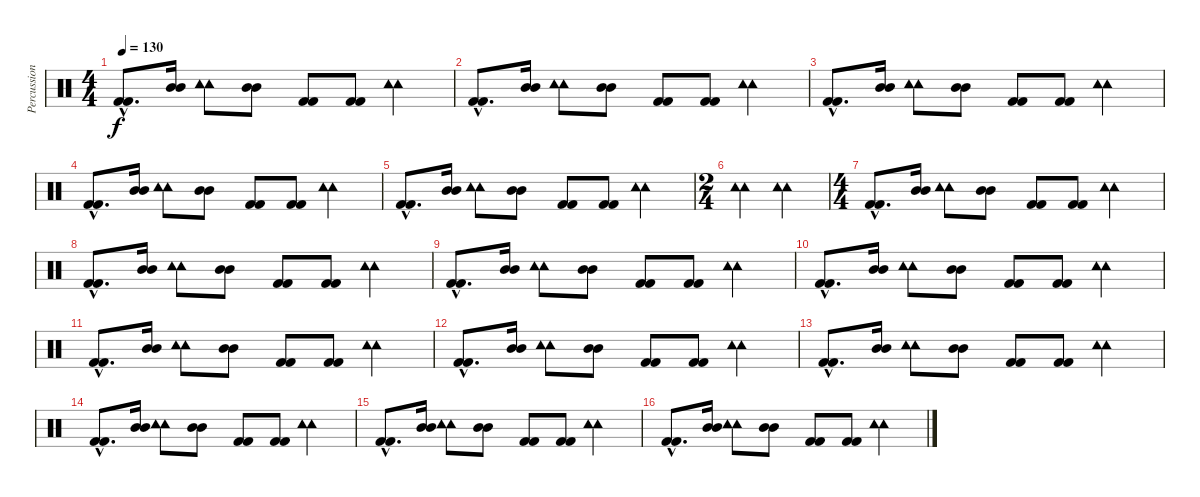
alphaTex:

\track ("Percussion" "Percussion") {instrument percussion}
\staff {score}
\articulation defaults
\ts (4 4)
\tempo 130
\clef neutral
\ks c
("Kick (hit) 2"{hac} "Kick (hit) 2"{hac}).8{d dy f} ("Mid Tom (hit)" "Mid Tom (hit)").16 ("Tambourine (hit)" "Tambourine (hit)").8 ("Mid Tom (hit)" "Mid Tom (hit)").8 ("Kick (hit) 2" "Kick (hit) 2").8 ("Kick (hit) 2" "Kick (hit) 2").8 ("Tambourine (hit)" "Tambourine (hit)").4 |
("Kick (hit) 2"{hac} "Kick (hit) 2"{hac}).8{d} ("Mid Tom (hit)" "Mid Tom (hit)").16 ("Tambourine (hit)" "Tambourine (hit)").8 ("Mid Tom (hit)" "Mid Tom (hit)").8 ("Kick (hit) 2" "Kick (hit) 2").8 ("Kick (hit) 2" "Kick (hit) 2").8 ("Tambourine (hit)" "Tambourine (hit)").4 |
("Kick (hit) 2"{hac} "Kick (hit) 2"{hac}).8{d} ("Mid Tom (hit)" "Mid Tom (hit)").16 ("Tambourine (hit)" "Tambourine (hit)").8 ("Mid Tom (hit)" "Mid Tom (hit)").8 ("Kick (hit) 2" "Kick (hit) 2").8 ("Kick (hit) 2" "Kick (hit) 2").8 ("Tambourine (hit)" "Tambourine (hit)").4 |
("Kick (hit) 2"{hac} "Kick (hit) 2"{hac}).8{d} ("Mid Tom (hit)" "Mid Tom (hit)").16 ("Tambourine (hit)" "Tambourine (hit)").8 ("Mid Tom (hit)" "Mid Tom (hit)").8 ("Kick (hit) 2" "Kick (hit) 2").8 ("Kick (hit) 2" "Kick (hit) 2").8 ("Tambourine (hit)" "Tambourine (hit)").4 |
("Kick (hit) 2"{hac} "Kick (hit) 2"{hac}).8{d} ("Mid Tom (hit)" "Mid Tom (hit)").16 ("Tambourine (hit)" "Tambourine (hit)").8 ("Mid Tom (hit)" "Mid Tom (hit)").8 ("Kick (hit) 2" "Kick (hit) 2").8 ("Kick (hit) 2" "Kick (hit) 2").8 ("Tambourine (hit)" "Tambourine (hit)").4 |
\ts (2 4)
("Tambourine (hit)" "Tambourine (hit)").4 ("Tambourine (hit)" "Tambourine (hit)").4 |
\ts (4 4)
("Kick (hit) 2"{hac} "Kick (hit) 2"{hac}).8{d} ("Mid Tom (hit)" "Mid Tom (hit)").16 ("Tambourine (hit)" "Tambourine (hit)").8 ("Mid Tom (hit)" "Mid Tom (hit)").8 ("Kick (hit) 2" "Kick (hit) 2").8 ("Kick (hit) 2" "Kick (hit) 2").8 ("Tambourine (hit)" "Tambourine (hit)").4 |
("Kick (hit) 2"{hac} "Kick (hit) 2"{hac}).8{d} ("Mid Tom (hit)" "Mid Tom (hit)").16 ("Tambourine (hit)" "Tambourine (hit)").8 ("Mid Tom (hit)" "Mid Tom (hit)").8 ("Kick (hit) 2" "Kick (hit) 2").8 ("Kick (hit) 2" "Kick (hit) 2").8 ("Tambourine (hit)" "Tambourine (hit)").4 |
("Kick (hit) 2"{hac} "Kick (hit) 2"{hac}).8{d} ("Mid Tom (hit)" "Mid Tom (hit)").16 ("Tambourine (hit)" "Tambourine (hit)").8 ("Mid Tom (hit)" "Mid Tom (hit)").8 ("Kick (hit) 2" "Kick (hit) 2").8 ("Kick (hit) 2" "Kick (hit) 2").8 ("Tambourine (hit)" "Tambourine (hit)").4 |
("Kick (hit) 2"{hac} "Kick (hit) 2"{hac}).8{d} ("Mid Tom (hit)" "Mid Tom (hit)").16 ("Tambourine (hit)" "Tambourine (hit)").8 ("Mid Tom (hit)" "Mid Tom (hit)").8 ("Kick (hit) 2" "Kick (hit) 2").8 ("Kick (hit) 2" "Kick (hit) 2").8 ("Tambourine (hit)" "Tambourine (hit)").4 |
("Kick (hit) 2"{hac} "Kick (hit) 2"{hac}).8{d} ("Mid Tom (hit)" "Mid Tom (hit)").16 ("Tambourine (hit)" "Tambourine (hit)").8 ("Mid Tom (hit)" "Mid Tom (hit)").8 ("Kick (hit) 2" "Kick (hit) 2").8 ("Kick (hit) 2" "Kick (hit) 2").8 ("Tambourine (hit)" "Tambourine (hit)").4 |
("Kick (hit) 2"{hac} "Kick (hit) 2"{hac}).8{d} ("Mid Tom (hit)" "Mid Tom (hit)").16 ("Tambourine (hit)" "Tambourine (hit)").8 ("Mid Tom (hit)" "Mid Tom (hit)").8 ("Kick (hit) 2" "Kick (hit) 2").8 ("Kick (hit) 2" "Kick (hit) 2").8 ("Tambourine (hit)" "Tambourine (hit)").4 |
("Kick (hit) 2"{hac} "Kick (hit) 2"{hac}).8{d} ("Mid Tom (hit)" "Mid Tom (hit)").16 ("Tambourine (hit)" "Tambourine (hit)").8 ("Mid Tom (hit)" "Mid Tom (hit)").8 ("Kick (hit) 2" "Kick (hit) 2").8 ("Kick (hit) 2" "Kick (hit) 2").8 ("Tambourine (hit)" "Tambourine (hit)").4 |
("Kick (hit) 2"{hac} "Kick (hit) 2"{hac}).8{d} ("Mid Tom (hit)" "Mid Tom (hit)").16 ("Tambourine (hit)" "Tambourine (hit)").8 ("Mid Tom (hit)" "Mid Tom (hit)").8 ("Kick (hit) 2" "Kick (hit) 2").8 ("Kick (hit) 2" "Kick (hit) 2").8 ("Tambourine (hit)" "Tambourine (hit)").4 |
("Kick (hit) 2"{hac} "Kick (hit) 2"{hac}).8{d} ("Mid Tom (hit)" "Mid Tom (hit)").16 ("Tambourine (hit)" "Tambourine (hit)").8 ("Mid Tom (hit)" "Mid Tom (hit)").8 ("Kick (hit) 2" "Kick (hit) 2").8 ("Kick (hit) 2" "Kick (hit) 2").8 ("Tambourine (hit)" "Tambourine (hit)").4 |
("Kick (hit) 2"{hac} "Kick (hit) 2"{hac}).8{d} ("Mid Tom (hit)" "Mid Tom (hit)").16 ("Tambourine (hit)" "Tambourine (hit)").8 ("Mid Tom (hit)" "Mid Tom (hit)").8 ("Kick (hit) 2" "Kick (hit) 2").8 ("Kick (hit) 2" "Kick (hit) 2").8 ("Tambourine (hit)" "Tambourine (hit)").4
